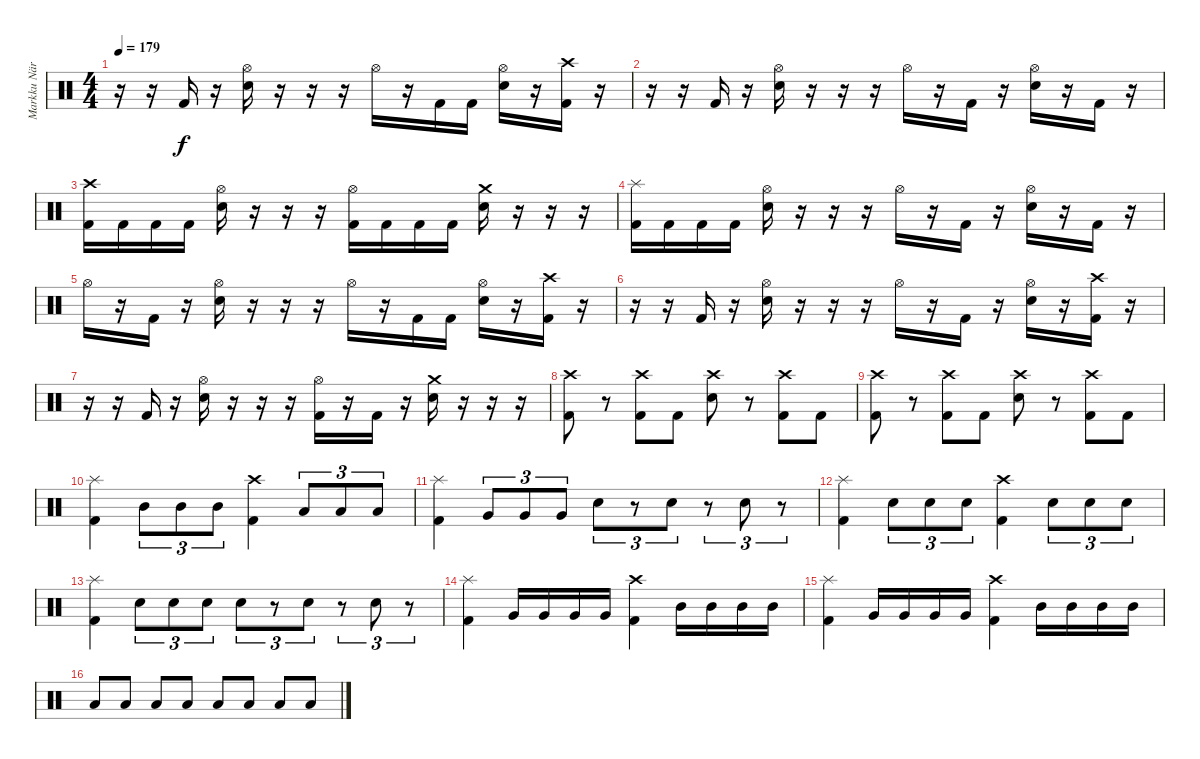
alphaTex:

\track ("Markku Näreneva (Drums)" "Markku När") {instrument percussion}
\staff {score}
\articulation defaults
\ts (4 4)
\tempo 179
\clef neutral
\ks c
r.16{dy f} r.16 "Kick (hit) 2".16 r.16 ("Snare (hit) 2" "Hi-Hat (open)").16 r.16 r.16 r.16 "Hi-Hat (open)".16 r.16 "Kick (hit) 2".16 "Kick (hit) 2".16 ("Snare (hit) 2" "Hi-Hat (open)").16 r.16 ("Kick (hit) 2" "Crash high (hit)").16 r.16 |
r.16 r.16 "Kick (hit) 2".16 r.16 ("Snare (hit) 2" "Hi-Hat (open)").16 r.16 r.16 r.16 "Hi-Hat (open)".16 r.16 "Kick (hit) 2".16 r.16 ("Snare (hit) 2" "Hi-Hat (open)").16 r.16 "Kick (hit) 2".16 r.16 |
("Kick (hit) 2" "Crash high (hit)").16 "Kick (hit) 2".16 "Kick (hit) 2".16 "Kick (hit) 2".16 ("Snare (hit) 2" "Hi-Hat (open)").16 r.16 r.16 r.16 ("Kick (hit) 2" "Hi-Hat (open)").16 "Kick (hit) 2".16 "Kick (hit) 2".16 "Kick (hit) 2".16 ("Snare (hit) 2" "Crash medium (hit)").16 r.16 r.16 r.16 |
("Kick (hit) 2" "Splash (hit)").16 "Kick (hit) 2".16 "Kick (hit) 2".16 "Kick (hit) 2".16 ("Snare (hit) 2" "Hi-Hat (open)").16 r.16 r.16 r.16 "Hi-Hat (open)".16 r.16 "Kick (hit) 2".16 r.16 ("Snare (hit) 2" "Hi-Hat (open)").16 r.16 "Kick (hit) 2".16 r.16 |
"Hi-Hat (open)".16 r.16 "Kick (hit) 2".16 r.16 ("Snare (hit) 2" "Hi-Hat (open)").16 r.16 r.16 r.16 "Hi-Hat (open)".16 r.16 "Kick (hit) 2".16 "Kick (hit) 2".16 ("Snare (hit) 2" "Hi-Hat (open)").16 r.16 ("Kick (hit) 2" "Crash high (hit)").16 r.16 |
r.16 r.16 "Kick (hit) 2".16 r.16 ("Snare (hit) 2" "Hi-Hat (open)").16 r.16 r.16 r.16 "Hi-Hat (open)".16 r.16 "Kick (hit) 2".16 r.16 ("Snare (hit) 2" "Hi-Hat (open)").16 r.16 ("Kick (hit) 2" "Crash high (hit)").16 r.16 |
r.16 r.16 "Kick (hit) 2".16 r.16 ("Snare (hit) 2" "Hi-Hat (open)").16 r.16 r.16 r.16 ("Kick (hit) 2" "Hi-Hat (open)").16 r.16 "Kick (hit) 2".16 r.16 ("Snare (hit) 2" "Crash medium (hit)").16 r.16 r.16 r.16 |
("Kick (hit) 2" "Crash high (hit)").8 r.8 ("Kick (hit) 2" "Crash high (hit)").8 "Kick (hit) 2".8 ("Snare (hit) 2" "Crash high (hit)").8 r.8 ("Kick (hit) 2" "Crash high (hit)").8 "Kick (hit) 2".8 |
("Kick (hit) 2" "Crash high (hit)").8 r.8 ("Kick (hit) 2" "Crash high (hit)").8 "Kick (hit) 2".8 ("Snare (hit) 2" "Crash high (hit)").8 r.8 ("Kick (hit) 2" "Crash high (hit)").8 "Kick (hit) 2".8 |
("Kick (hit) 2" "Splash (hit)").4 "Mid Tom (hit)".8{tu (3 2)} "Mid Tom (hit)".8{tu (3 2)} "Mid Tom (hit)".8{tu (3 2)} ("Kick (hit) 2" "Crash high (hit)").4 "Low Tom (hit)".8{tu (3 2)} "Low Tom (hit)".8{tu (3 2)} "Low Tom (hit)".8{tu (3 2)} |
("Kick (hit) 2" "Splash (hit)").4 "Very Low Tom (hit)".8{tu (3 2)} "Very Low Tom (hit)".8{tu (3 2)} "Very Low Tom (hit)".8{tu (3 2)} "Snare (hit) 2".8{tu (3 2)} r.8{tu (3 2)} "Snare (hit) 2".8{tu (3 2)} r.8{tu (3 2)} "Snare (hit) 2".8{tu (3 2)} r.8{tu (3 2)} |
("Kick (hit) 2" "Splash (hit)").4 "Snare (hit) 2".8{tu (3 2)} "Snare (hit) 2".8{tu (3 2)} "Snare (hit) 2".8{tu (3 2)} ("Kick (hit) 2" "Crash high (hit)").4 "Snare (hit) 2".8{tu (3 2)} "Snare (hit) 2".8{tu (3 2)} "Snare (hit) 2".8{tu (3 2)} |
("Kick (hit) 2" "Splash (hit)").4 "Snare (hit) 2".8{tu (3 2)} "Snare (hit) 2".8{tu (3 2)} "Snare (hit) 2".8{tu (3 2)} "Snare (hit) 2".8{tu (3 2)} r.8{tu (3 2)} "Snare (hit) 2".8{tu (3 2)} r.8{tu (3 2)} "Snare (hit) 2".8{tu (3 2)} r.8{tu (3 2)} |
("Kick (hit) 2" "Splash (hit)").4 "Very Low Tom (hit)".16 "Very Low Tom (hit)".16 "Very Low Tom (hit)".16 "Very Low Tom (hit)".16 ("Kick (hit) 2" "Crash high (hit)").4 "Mid Tom (hit)".16 "Mid Tom (hit)".16 "Mid Tom (hit)".16 "Mid Tom (hit)".16 |
("Kick (hit) 2" "Splash (hit)").4 "Very Low Tom (hit)".16 "Very Low Tom (hit)".16 "Very Low Tom (hit)".16 "Very Low Tom (hit)".16 ("Kick (hit) 2" "Crash high (hit)").4 "Mid Tom (hit)".16 "Mid Tom (hit)".16 "Mid Tom (hit)".16 "Mid Tom (hit)".16 |
"Low Tom (hit)".8 "Low Tom (hit)".8 "Low Tom (hit)".8 "Low Tom (hit)".8 "Low Tom (hit)".8 "Low Tom (hit)".8 "Low Tom (hit)".8 "Low Tom (hit)".8
